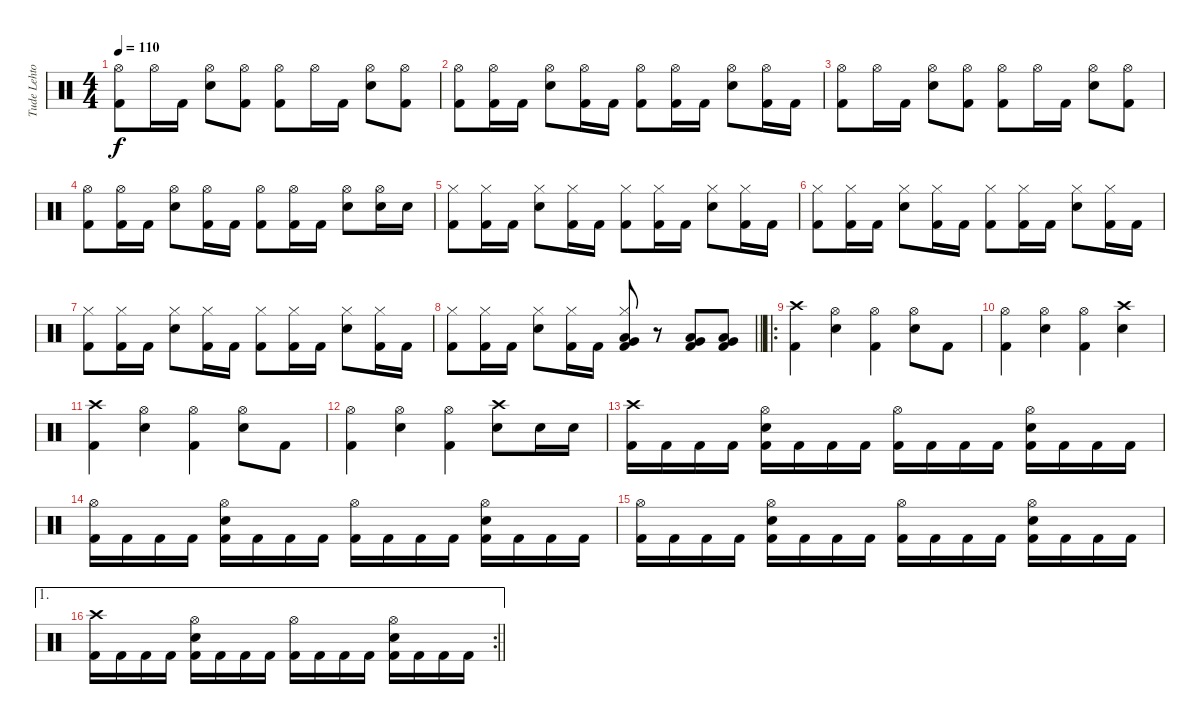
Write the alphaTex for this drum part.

\track ("Tude Lehtonen" "Tude Lehto") {instrument percussion}
\staff {score}
\articulation defaults
\ts (4 4)
\section ("" "")
\tempo 110
\clef neutral
\ks c
("Hi-Hat (open)" "Kick (hit) 2").8{dy f} "Hi-Hat (open)".16 "Kick (hit) 2".16 ("Hi-Hat (open)" "Snare (hit) 2").8 ("Hi-Hat (open)" "Kick (hit) 2").8 ("Hi-Hat (open)" "Kick (hit) 2").8 "Hi-Hat (open)".16 "Kick (hit) 2".16 ("Hi-Hat (open)" "Snare (hit) 2").8 ("Hi-Hat (open)" "Kick (hit) 2").8 |
("Hi-Hat (open)" "Kick (hit) 2").8 ("Hi-Hat (open)" "Kick (hit) 2").16 "Kick (hit) 2".16 ("Hi-Hat (open)" "Snare (hit) 2").8 ("Hi-Hat (open)" "Kick (hit) 2").16 "Kick (hit) 2".16 ("Hi-Hat (open)" "Kick (hit) 2").8 ("Hi-Hat (open)" "Kick (hit) 2").16 "Kick (hit) 2".16 ("Hi-Hat (open)" "Snare (hit) 2").8 ("Hi-Hat (open)" "Kick (hit) 2").16 "Kick (hit) 2".16 |
("Hi-Hat (open)" "Kick (hit) 2").8 "Hi-Hat (open)".16 "Kick (hit) 2".16 ("Hi-Hat (open)" "Snare (hit) 2").8 ("Hi-Hat (open)" "Kick (hit) 2").8 ("Hi-Hat (open)" "Kick (hit) 2").8 "Hi-Hat (open)".16 "Kick (hit) 2".16 ("Hi-Hat (open)" "Snare (hit) 2").8 ("Hi-Hat (open)" "Kick (hit) 2").8 |
("Hi-Hat (open)" "Kick (hit) 2").8 ("Hi-Hat (open)" "Kick (hit) 2").16 "Kick (hit) 2".16 ("Hi-Hat (open)" "Snare (hit) 2").8 ("Hi-Hat (open)" "Kick (hit) 2").16 "Kick (hit) 2".16 ("Hi-Hat (open)" "Kick (hit) 2").8 ("Hi-Hat (open)" "Kick (hit) 2").16 "Kick (hit) 2".16 ("Hi-Hat (open)" "Snare (hit) 2").8 ("Hi-Hat (open)" "Snare (hit) 2").16 "Snare (hit) 2".16 |
("Hi-Hat (closed)" "Kick (hit) 2").8 ("Hi-Hat (closed)" "Kick (hit) 2").16 "Kick (hit) 2".16 ("Hi-Hat (closed)" "Snare (hit) 2").8 ("Hi-Hat (closed)" "Kick (hit) 2").16 "Kick (hit) 2".16 ("Hi-Hat (closed)" "Kick (hit) 2").8 ("Hi-Hat (closed)" "Kick (hit) 2").16 "Kick (hit) 2".16 ("Hi-Hat (closed)" "Snare (hit) 2").8 ("Hi-Hat (closed)" "Kick (hit) 2").16 "Kick (hit) 2".16 |
("Hi-Hat (closed)" "Kick (hit) 2").8 ("Hi-Hat (closed)" "Kick (hit) 2").16 "Kick (hit) 2".16 ("Hi-Hat (closed)" "Snare (hit) 2").8 ("Hi-Hat (closed)" "Kick (hit) 2").16 "Kick (hit) 2".16 ("Hi-Hat (closed)" "Kick (hit) 2").8 ("Hi-Hat (closed)" "Kick (hit) 2").16 "Kick (hit) 2".16 ("Hi-Hat (closed)" "Snare (hit) 2").8 ("Hi-Hat (closed)" "Kick (hit) 2").16 "Kick (hit) 2".16 |
("Hi-Hat (closed)" "Kick (hit) 2").8 ("Hi-Hat (closed)" "Kick (hit) 2").16 "Kick (hit) 2".16 ("Hi-Hat (closed)" "Snare (hit) 2").8 ("Hi-Hat (closed)" "Kick (hit) 2").16 "Kick (hit) 2".16 ("Hi-Hat (closed)" "Kick (hit) 2").8 ("Hi-Hat (closed)" "Kick (hit) 2").16 "Kick (hit) 2".16 ("Hi-Hat (closed)" "Snare (hit) 2").8 ("Hi-Hat (closed)" "Kick (hit) 2").16 "Kick (hit) 2".16 |
\barLineRight lightlight
("Hi-Hat (closed)" "Kick (hit) 2").8 ("Hi-Hat (closed)" "Kick (hit) 2").16 "Kick (hit) 2".16 ("Hi-Hat (closed)" "Snare (hit) 2").8 ("Hi-Hat (closed)" "Kick (hit) 2").16 "Kick (hit) 2".16 ("Hi-Hat (closed)" "Low Floor Tom (hit)" "Very Low Tom (hit)" "Kick (hit) 2").8 r.8 ("Low Floor Tom (hit)" "Very Low Tom (hit)" "Kick (hit) 2").8 ("Low Floor Tom (hit)" "Very Low Tom (hit)" "Kick (hit) 2").8 |
\ro
\section ("" "")
("Crash high (hit)" "Kick (hit) 2").4 ("Hi-Hat (open)" "Snare (hit) 2").4 ("Hi-Hat (open)" "Kick (hit) 2").4 ("Hi-Hat (open)" "Snare (hit) 2").8 "Kick (hit) 2".8 |
("Hi-Hat (open)" "Kick (hit) 2").4 ("Hi-Hat (open)" "Snare (hit) 2").4 ("Hi-Hat (open)" "Kick (hit) 2").4 ("Crash high (hit)" "Snare (hit) 2").4 |
("Crash high (hit)" "Kick (hit) 2").4 ("Hi-Hat (open)" "Snare (hit) 2").4 ("Hi-Hat (open)" "Kick (hit) 2").4 ("Hi-Hat (open)" "Snare (hit) 2").8 "Kick (hit) 2".8 |
("Hi-Hat (open)" "Kick (hit) 2").4 ("Hi-Hat (open)" "Snare (hit) 2").4 ("Hi-Hat (open)" "Kick (hit) 2").4 ("Crash high (hit)" "Snare (hit) 2").8 "Snare (hit) 2".16 "Snare (hit) 2".16 |
("Crash high (hit)" "Kick (hit) 2").16 "Kick (hit) 2".16 "Kick (hit) 2".16 "Kick (hit) 2".16 ("Hi-Hat (open)" "Snare (hit) 2" "Kick (hit) 2").16 "Kick (hit) 2".16 "Kick (hit) 2".16 "Kick (hit) 2".16 ("Hi-Hat (open)" "Kick (hit) 2").16 "Kick (hit) 2".16 "Kick (hit) 2".16 "Kick (hit) 2".16 ("Hi-Hat (open)" "Snare (hit) 2" "Kick (hit) 2").16 "Kick (hit) 2".16 "Kick (hit) 2".16 "Kick (hit) 2".16 |
("Hi-Hat (open)" "Kick (hit) 2").16 "Kick (hit) 2".16 "Kick (hit) 2".16 "Kick (hit) 2".16 ("Hi-Hat (open)" "Snare (hit) 2" "Kick (hit) 2").16 "Kick (hit) 2".16 "Kick (hit) 2".16 "Kick (hit) 2".16 ("Hi-Hat (open)" "Kick (hit) 2").16 "Kick (hit) 2".16 "Kick (hit) 2".16 "Kick (hit) 2".16 ("Hi-Hat (open)" "Snare (hit) 2" "Kick (hit) 2").16 "Kick (hit) 2".16 "Kick (hit) 2".16 "Kick (hit) 2".16 |
("Hi-Hat (open)" "Kick (hit) 2").16 "Kick (hit) 2".16 "Kick (hit) 2".16 "Kick (hit) 2".16 ("Hi-Hat (open)" "Snare (hit) 2" "Kick (hit) 2").16 "Kick (hit) 2".16 "Kick (hit) 2".16 "Kick (hit) 2".16 ("Hi-Hat (open)" "Kick (hit) 2").16 "Kick (hit) 2".16 "Kick (hit) 2".16 "Kick (hit) 2".16 ("Hi-Hat (open)" "Snare (hit) 2" "Kick (hit) 2").16 "Kick (hit) 2".16 "Kick (hit) 2".16 "Kick (hit) 2".16 |
\ae 1
\rc 2
\barLineRight lightlight
("Crash high (hit)" "Kick (hit) 2").16 "Kick (hit) 2".16 "Kick (hit) 2".16 "Kick (hit) 2".16 ("Hi-Hat (open)" "Snare (hit) 2" "Kick (hit) 2").16 "Kick (hit) 2".16 "Kick (hit) 2".16 "Kick (hit) 2".16 ("Hi-Hat (open)" "Kick (hit) 2").16 "Kick (hit) 2".16 "Kick (hit) 2".16 "Kick (hit) 2".16 ("Hi-Hat (open)" "Snare (hit) 2" "Kick (hit) 2").16 "Kick (hit) 2".16 "Kick (hit) 2".16 "Kick (hit) 2".16
